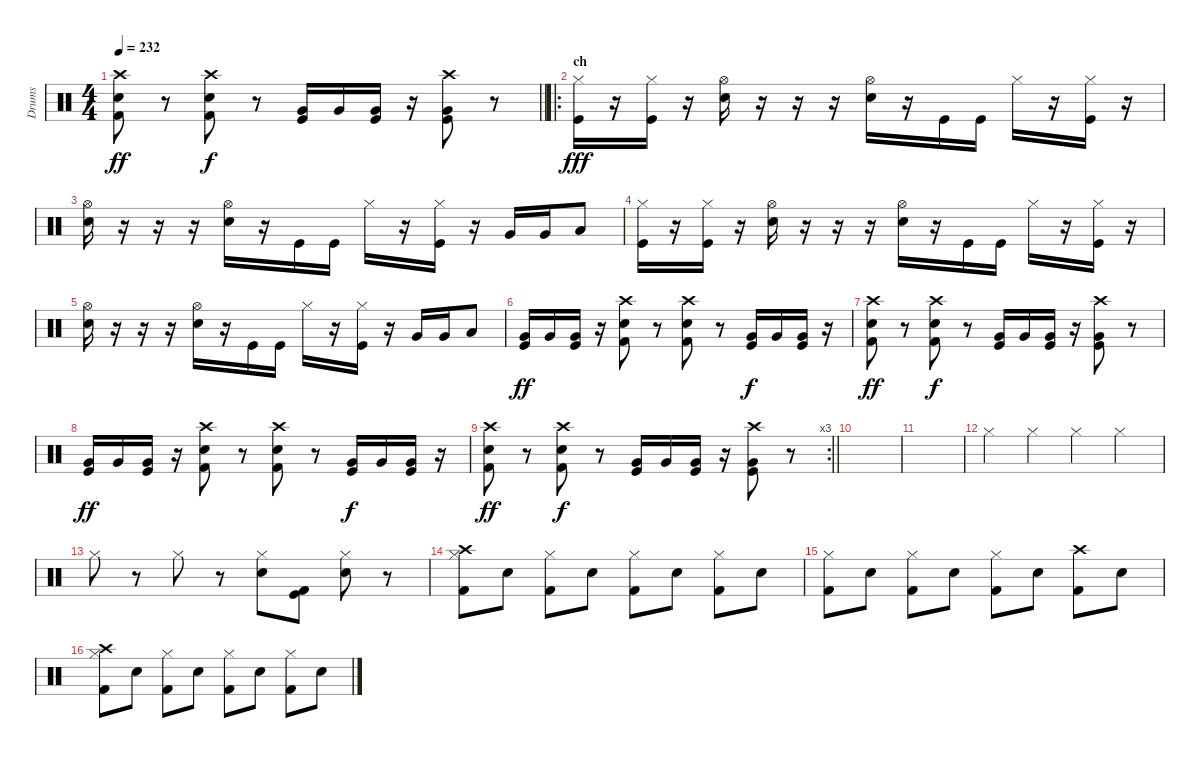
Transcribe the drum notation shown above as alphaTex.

\track ("Drums" "Drums") {instrument percussion}
\staff {score}
\articulation defaults
\ts (4 4)
\tempo 232
\clef neutral
\barLineRight lightlight
\ks c
("Crash high (hit)" "Electric Snare (hit)" "Kick (hit) 2").8{dy ff} r.8 ("Crash high (hit)" "Electric Snare (hit)" "Kick (hit) 2").8{dy f} r.8 ("Very Low Tom (hit)" "Kick (hit)").16 "Very Low Tom (hit)".16 ("Very Low Tom (hit)" "Kick (hit)").16 r.16 ("Crash high (hit)" "Very Low Tom (hit)" "Kick (hit)").8 r.8 |
\ro
\section ("" "ch")
("Hi-Hat (closed)" "Kick (hit)").16{dy fff} r.16 ("Hi-Hat (closed)" "Kick (hit)").16 r.16 ("Hi-Hat (open)" "Electric Snare (hit)").16 r.16 r.16 r.16 ("Hi-Hat (open)" "Electric Snare (hit)").16 r.16 "Kick (hit)".16 "Kick (hit)".16 "Hi-Hat (closed)".16 r.16 ("Hi-Hat (closed)" "Kick (hit)").16 r.16 |
("Hi-Hat (open)" "Electric Snare (hit)").16 r.16 r.16 r.16 ("Hi-Hat (open)" "Electric Snare (hit)").16 r.16 "Kick (hit)".16 "Kick (hit)".16 "Hi-Hat (closed)".16 r.16 ("Hi-Hat (closed)" "Kick (hit)").16 r.16 "Very Low Tom (hit)".16 "Very Low Tom (hit)".16 "Low Tom (hit)".8 |
("Hi-Hat (closed)" "Kick (hit)").16 r.16 ("Hi-Hat (closed)" "Kick (hit)").16 r.16 ("Hi-Hat (open)" "Electric Snare (hit)").16 r.16 r.16 r.16 ("Hi-Hat (open)" "Electric Snare (hit)").16 r.16 "Kick (hit)".16 "Kick (hit)".16 "Hi-Hat (closed)".16 r.16 ("Hi-Hat (closed)" "Kick (hit)").16 r.16 |
("Hi-Hat (open)" "Electric Snare (hit)").16 r.16 r.16 r.16 ("Hi-Hat (open)" "Electric Snare (hit)").16 r.16 "Kick (hit)".16 "Kick (hit)".16 "Hi-Hat (closed)".16 r.16 ("Hi-Hat (closed)" "Kick (hit)").16 r.16 "Very Low Tom (hit)".16 "Very Low Tom (hit)".16 "Low Tom (hit)".8 |
("Very Low Tom (hit)" "Kick (hit)").16{dy ff} "Very Low Tom (hit)".16 ("Very Low Tom (hit)" "Kick (hit)").16 r.16 ("Crash high (hit)" "Electric Snare (hit)" "Kick (hit) 2").8 r.8 ("Crash high (hit)" "Electric Snare (hit)" "Kick (hit) 2").8 r.8 ("Very Low Tom (hit)" "Kick (hit)").16{dy f} "Very Low Tom (hit)".16 ("Very Low Tom (hit)" "Kick (hit)").16 r.16 |
("Crash high (hit)" "Electric Snare (hit)" "Kick (hit) 2").8{dy ff} r.8 ("Crash high (hit)" "Electric Snare (hit)" "Kick (hit) 2").8{dy f} r.8 ("Very Low Tom (hit)" "Kick (hit)").16 "Very Low Tom (hit)".16 ("Very Low Tom (hit)" "Kick (hit)").16 r.16 ("Crash high (hit)" "Very Low Tom (hit)" "Kick (hit)").8 r.8 |
("Very Low Tom (hit)" "Kick (hit)").16{dy ff} "Very Low Tom (hit)".16 ("Very Low Tom (hit)" "Kick (hit)").16 r.16 ("Crash high (hit)" "Electric Snare (hit)" "Kick (hit) 2").8 r.8 ("Crash high (hit)" "Electric Snare (hit)" "Kick (hit) 2").8 r.8 ("Very Low Tom (hit)" "Kick (hit)").16{dy f} "Very Low Tom (hit)".16 ("Very Low Tom (hit)" "Kick (hit)").16 r.16 |
\rc 3
\barLineRight lightlight
("Crash high (hit)" "Electric Snare (hit)" "Kick (hit) 2").8{dy ff} r.8 ("Crash high (hit)" "Electric Snare (hit)" "Kick (hit) 2").8{dy f} r.8 ("Very Low Tom (hit)" "Kick (hit)").16 "Very Low Tom (hit)".16 ("Very Low Tom (hit)" "Kick (hit)").16 r.16 ("Crash high (hit)" "Very Low Tom (hit)" "Kick (hit)").8 r.8 |
|
|
"Hi-Hat (closed)".4 "Hi-Hat (closed)".4 "Hi-Hat (closed)".4 "Hi-Hat (closed)".4 |
"Hi-Hat (closed)".8 r.8 "Hi-Hat (closed)".8 r.8 ("Hi-Hat (closed)" "Electric Snare (hit)").8 ("Kick (hit) 2" "Kick (hit)").8 ("Hi-Hat (closed)" "Electric Snare (hit)").8 r.8 |
("Hi-Hat (closed)" "Crash high (hit)" "Kick (hit) 2").8 "Electric Snare (hit)".8 ("Hi-Hat (closed)" "Kick (hit) 2").8 "Electric Snare (hit)".8 ("Hi-Hat (closed)" "Kick (hit) 2").8 "Electric Snare (hit)".8 ("Hi-Hat (closed)" "Kick (hit) 2").8 "Electric Snare (hit)".8 |
("Hi-Hat (closed)" "Kick (hit) 2").8 "Electric Snare (hit)".8 ("Hi-Hat (closed)" "Kick (hit) 2").8 "Electric Snare (hit)".8 ("Hi-Hat (closed)" "Kick (hit) 2").8 "Electric Snare (hit)".8 ("Crash high (hit)" "Kick (hit) 2").8 "Electric Snare (hit)".8 |
("Hi-Hat (closed)" "Crash high (hit)" "Kick (hit) 2").8 "Electric Snare (hit)".8 ("Hi-Hat (closed)" "Kick (hit) 2").8 "Electric Snare (hit)".8 ("Hi-Hat (closed)" "Kick (hit) 2").8 "Electric Snare (hit)".8 ("Hi-Hat (closed)" "Kick (hit) 2").8 "Electric Snare (hit)".8
